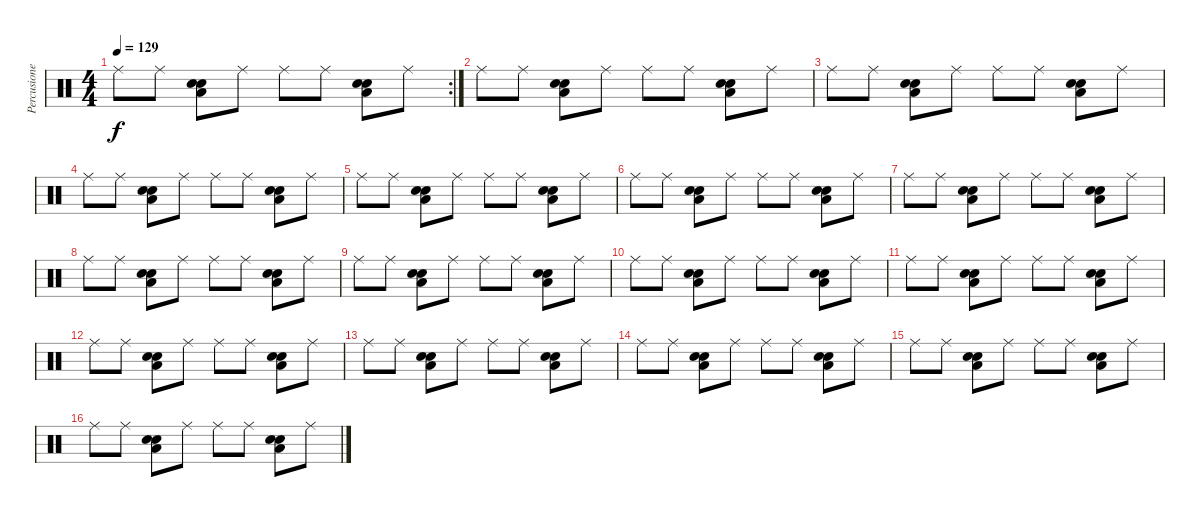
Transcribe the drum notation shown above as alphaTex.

\track ("Percusiones" "Percusione") {instrument percussion}
\staff {score}
\articulation defaults
\rc 2
\ts (4 4)
\tempo 129
\clef neutral
\ks c "Ride (middle)".8{dy f} "Ride (middle)".8
("Electric Snare (hit)" "Low Floor Tom (hit)" "Snare (hit) 2").8 "Ride (middle)".8 "Ride (middle)".8 "Ride (middle)".8 ("Electric Snare (hit)" "Low Floor Tom (hit)" "Snare (hit) 2").8 "Ride (middle)".8 |
"Ride (middle)".8 "Ride (middle)".8 ("Electric Snare (hit)" "Low Floor Tom (hit)" "Snare (hit) 2").8 "Ride (middle)".8 "Ride (middle)".8 "Ride (middle)".8 ("Electric Snare (hit)" "Low Floor Tom (hit)" "Snare (hit) 2").8 "Ride (middle)".8 |
"Ride (middle)".8 "Ride (middle)".8 ("Electric Snare (hit)" "Low Floor Tom (hit)" "Snare (hit) 2").8 "Ride (middle)".8 "Ride (middle)".8 "Ride (middle)".8 ("Electric Snare (hit)" "Low Floor Tom (hit)" "Snare (hit) 2").8 "Ride (middle)".8 |
"Ride (middle)".8 "Ride (middle)".8 ("Electric Snare (hit)" "Low Floor Tom (hit)" "Snare (hit) 2").8 "Ride (middle)".8 "Ride (middle)".8 "Ride (middle)".8 ("Electric Snare (hit)" "Low Floor Tom (hit)" "Snare (hit) 2").8 "Ride (middle)".8 |
"Ride (middle)".8 "Ride (middle)".8 ("Electric Snare (hit)" "Low Floor Tom (hit)" "Snare (hit) 2").8 "Ride (middle)".8 "Ride (middle)".8 "Ride (middle)".8 ("Electric Snare (hit)" "Low Floor Tom (hit)" "Snare (hit) 2").8 "Ride (middle)".8 |
"Ride (middle)".8 "Ride (middle)".8 ("Electric Snare (hit)" "Low Floor Tom (hit)" "Snare (hit) 2").8 "Ride (middle)".8 "Ride (middle)".8 "Ride (middle)".8 ("Electric Snare (hit)" "Low Floor Tom (hit)" "Snare (hit) 2").8 "Ride (middle)".8 |
"Ride (middle)".8 "Ride (middle)".8 ("Electric Snare (hit)" "Low Floor Tom (hit)" "Snare (hit) 2").8 "Ride (middle)".8 "Ride (middle)".8 "Ride (middle)".8 ("Electric Snare (hit)" "Low Floor Tom (hit)" "Snare (hit) 2").8 "Ride (middle)".8 |
"Ride (middle)".8 "Ride (middle)".8 ("Electric Snare (hit)" "Low Floor Tom (hit)" "Snare (hit) 2").8 "Ride (middle)".8 "Ride (middle)".8 "Ride (middle)".8 ("Electric Snare (hit)" "Low Floor Tom (hit)" "Snare (hit) 2").8 "Ride (middle)".8 |
"Ride (middle)".8 "Ride (middle)".8 ("Electric Snare (hit)" "Low Floor Tom (hit)" "Snare (hit) 2").8 "Ride (middle)".8 "Ride (middle)".8 "Ride (middle)".8 ("Electric Snare (hit)" "Low Floor Tom (hit)" "Snare (hit) 2").8 "Ride (middle)".8 |
"Ride (middle)".8 "Ride (middle)".8 ("Electric Snare (hit)" "Low Floor Tom (hit)" "Snare (hit) 2").8 "Ride (middle)".8 "Ride (middle)".8 "Ride (middle)".8 ("Electric Snare (hit)" "Low Floor Tom (hit)" "Snare (hit) 2").8 "Ride (middle)".8 |
"Ride (middle)".8 "Ride (middle)".8 ("Electric Snare (hit)" "Low Floor Tom (hit)" "Snare (hit) 2").8 "Ride (middle)".8 "Ride (middle)".8 "Ride (middle)".8 ("Electric Snare (hit)" "Low Floor Tom (hit)" "Snare (hit) 2").8 "Ride (middle)".8 |
"Ride (middle)".8 "Ride (middle)".8 ("Electric Snare (hit)" "Low Floor Tom (hit)" "Snare (hit) 2").8 "Ride (middle)".8 "Ride (middle)".8 "Ride (middle)".8 ("Electric Snare (hit)" "Low Floor Tom (hit)" "Snare (hit) 2").8 "Ride (middle)".8 |
"Ride (middle)".8 "Ride (middle)".8 ("Electric Snare (hit)" "Low Floor Tom (hit)" "Snare (hit) 2").8 "Ride (middle)".8 "Ride (middle)".8 "Ride (middle)".8 ("Electric Snare (hit)" "Low Floor Tom (hit)" "Snare (hit) 2").8 "Ride (middle)".8 |
"Ride (middle)".8 "Ride (middle)".8 ("Electric Snare (hit)" "Low Floor Tom (hit)" "Snare (hit) 2").8 "Ride (middle)".8 "Ride (middle)".8 "Ride (middle)".8 ("Electric Snare (hit)" "Low Floor Tom (hit)" "Snare (hit) 2").8 "Ride (middle)".8 |
"Ride (middle)".8 "Ride (middle)".8 ("Electric Snare (hit)" "Low Floor Tom (hit)" "Snare (hit) 2").8 "Ride (middle)".8 "Ride (middle)".8 "Ride (middle)".8 ("Electric Snare (hit)" "Low Floor Tom (hit)" "Snare (hit) 2").8 "Ride (middle)".8 |
"Ride (middle)".8 "Ride (middle)".8 ("Electric Snare (hit)" "Low Floor Tom (hit)" "Snare (hit) 2").8 "Ride (middle)".8 "Ride (middle)".8 "Ride (middle)".8 ("Electric Snare (hit)" "Low Floor Tom (hit)" "Snare (hit) 2").8 "Ride (middle)".8
